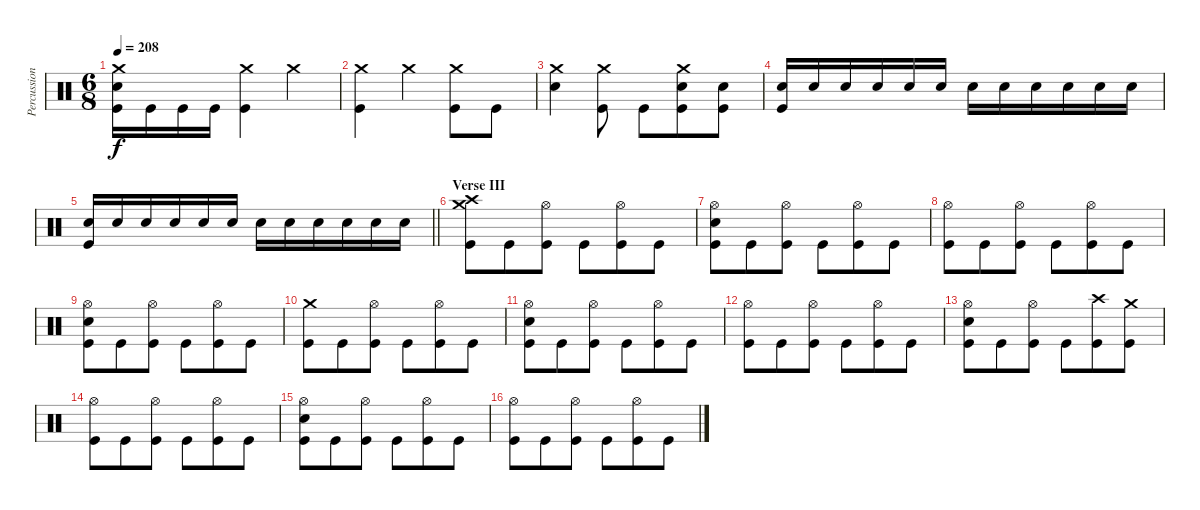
\track ("Percussion" "Percussion") {instrument percussion}
\staff {score}
\articulation defaults
\ts (6 8)
\tempo 208
\clef neutral
\ks c
("Crash medium (hit)" "Electric Snare (hit)" "Kick (hit)").16{dy f} "Kick (hit)".16 "Kick (hit)".16 "Kick (hit)".16 ("Crash medium (hit)" "Kick (hit)").4 "Crash medium (hit)".4 |
("Crash medium (hit)" "Kick (hit)").4 "Crash medium (hit)".4 ("Crash medium (hit)" "Kick (hit)").8 "Kick (hit)".8 |
("Crash medium (hit)" "Electric Snare (hit)").4 ("Crash medium (hit)" "Kick (hit)").8 "Kick (hit)".8 ("Crash medium (hit)" "Electric Snare (hit)" "Kick (hit)").8 ("Electric Snare (hit)" "Kick (hit)").8 |
("Electric Snare (hit)" "Kick (hit)").16 "Electric Snare (hit)".16 "Electric Snare (hit)".16 "Electric Snare (hit)".16 "Electric Snare (hit)".16 "Electric Snare (hit)".16 "Electric Snare (hit)".16 "Electric Snare (hit)".16 "Electric Snare (hit)".16 "Electric Snare (hit)".16 "Electric Snare (hit)".16 "Electric Snare (hit)".16 |
\barLineRight lightlight
("Electric Snare (hit)" "Kick (hit)").16 "Electric Snare (hit)".16 "Electric Snare (hit)".16 "Electric Snare (hit)".16 "Electric Snare (hit)".16 "Electric Snare (hit)".16 "Electric Snare (hit)".16 "Electric Snare (hit)".16 "Electric Snare (hit)".16 "Electric Snare (hit)".16 "Electric Snare (hit)".16 "Electric Snare (hit)".16 |
\section ("" "Verse III")
("Crash high (hit)" "Crash medium (hit)" "Kick (hit)").8 "Kick (hit)".8 ("Hi-Hat (open)" "Kick (hit)").8 "Kick (hit)".8 ("Hi-Hat (open)" "Kick (hit)").8 "Kick (hit)".8 |
("Hi-Hat (open)" "Electric Snare (hit)" "Kick (hit)").8 "Kick (hit)".8 ("Hi-Hat (open)" "Kick (hit)").8 "Kick (hit)".8 ("Hi-Hat (open)" "Kick (hit)").8 "Kick (hit)".8 |
("Hi-Hat (open)" "Kick (hit)").8 "Kick (hit)".8 ("Hi-Hat (open)" "Kick (hit)").8 "Kick (hit)".8 ("Hi-Hat (open)" "Kick (hit)").8 "Kick (hit)".8 |
("Hi-Hat (open)" "Electric Snare (hit)" "Kick (hit)").8 "Kick (hit)".8 ("Hi-Hat (open)" "Kick (hit)").8 "Kick (hit)".8 ("Hi-Hat (open)" "Kick (hit)").8 "Kick (hit)".8 |
("Crash medium (hit)" "Kick (hit)").8 "Kick (hit)".8 ("Hi-Hat (open)" "Kick (hit)").8 "Kick (hit)".8 ("Hi-Hat (open)" "Kick (hit)").8 "Kick (hit)".8 |
("Hi-Hat (open)" "Electric Snare (hit)" "Kick (hit)").8 "Kick (hit)".8 ("Hi-Hat (open)" "Kick (hit)").8 "Kick (hit)".8 ("Hi-Hat (open)" "Kick (hit)").8 "Kick (hit)".8 |
("Hi-Hat (open)" "Kick (hit)").8 "Kick (hit)".8 ("Hi-Hat (open)" "Kick (hit)").8 "Kick (hit)".8 ("Hi-Hat (open)" "Kick (hit)").8 "Kick (hit)".8 |
("Hi-Hat (open)" "Electric Snare (hit)" "Kick (hit)").8 "Kick (hit)".8 ("Hi-Hat (open)" "Kick (hit)").8 "Kick (hit)".8 ("Crash high (hit)" "Kick (hit)").8 ("Crash medium (hit)" "Kick (hit)").8 |
("Hi-Hat (open)" "Kick (hit)").8 "Kick (hit)".8 ("Hi-Hat (open)" "Kick (hit)").8 "Kick (hit)".8 ("Hi-Hat (open)" "Kick (hit)").8 "Kick (hit)".8 |
("Hi-Hat (open)" "Electric Snare (hit)" "Kick (hit)").8 "Kick (hit)".8 ("Hi-Hat (open)" "Kick (hit)").8 "Kick (hit)".8 ("Hi-Hat (open)" "Kick (hit)").8 "Kick (hit)".8 |
("Hi-Hat (open)" "Kick (hit)").8 "Kick (hit)".8 ("Hi-Hat (open)" "Kick (hit)").8 "Kick (hit)".8 ("Hi-Hat (open)" "Kick (hit)").8 "Kick (hit)".8
